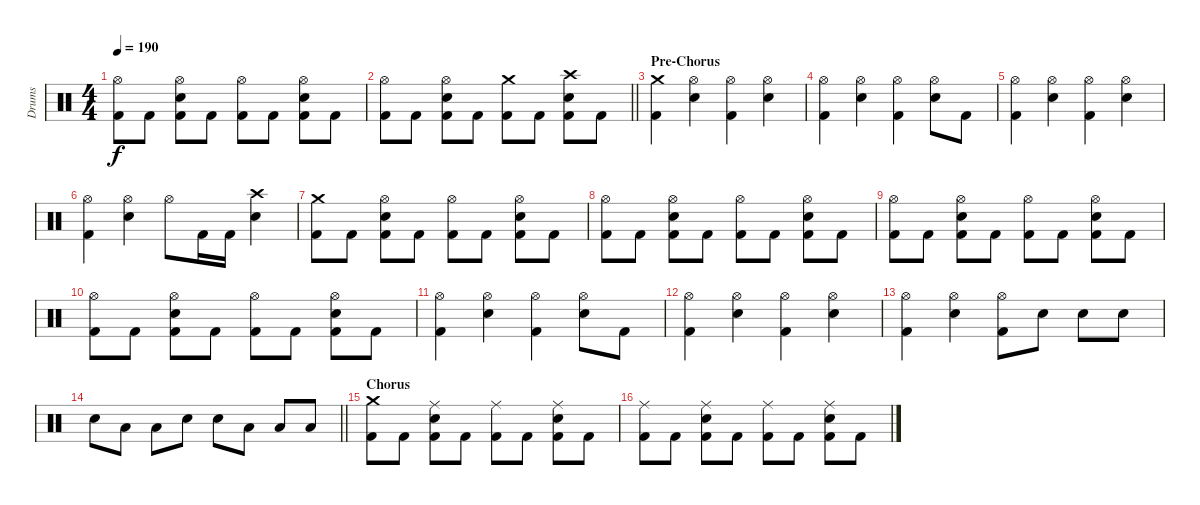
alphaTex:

\track ("Drums" "Drums") {instrument percussion}
\staff {score}
\articulation defaults
\ts (4 4)
\tempo 190
\clef neutral
\ks c
("Hi-Hat (open)" "Kick (hit) 2").8{dy f} "Kick (hit) 2".8 ("Hi-Hat (open)" "Snare (hit) 2" "Kick (hit) 2").8 "Kick (hit) 2".8 ("Hi-Hat (open)" "Kick (hit) 2").8 "Kick (hit) 2".8 ("Hi-Hat (open)" "Snare (hit) 2" "Kick (hit) 2").8 "Kick (hit) 2".8 |
\barLineRight lightlight
("Hi-Hat (open)" "Kick (hit) 2").8 "Kick (hit) 2".8 ("Hi-Hat (open)" "Snare (hit) 2" "Kick (hit) 2").8 "Kick (hit) 2".8 ("Crash medium (hit)" "Kick (hit) 2").8 "Kick (hit) 2".8 ("Crash high (hit)" "Snare (hit) 2" "Kick (hit) 2").8 "Kick (hit) 2".8 |
\section ("" "Pre-Chorus")
("Crash medium (hit)" "Kick (hit) 2").4 ("Hi-Hat (open)" "Snare (hit) 2").4 ("Hi-Hat (open)" "Kick (hit) 2").4 ("Hi-Hat (open)" "Snare (hit) 2").4 |
("Hi-Hat (open)" "Kick (hit) 2").4 ("Hi-Hat (open)" "Snare (hit) 2").4 ("Hi-Hat (open)" "Kick (hit) 2").4 ("Hi-Hat (open)" "Snare (hit) 2").8 "Kick (hit) 2".8 |
("Hi-Hat (open)" "Kick (hit) 2").4 ("Hi-Hat (open)" "Snare (hit) 2").4 ("Hi-Hat (open)" "Kick (hit) 2").4 ("Hi-Hat (open)" "Snare (hit) 2").4 |
("Hi-Hat (open)" "Kick (hit) 2").4 ("Hi-Hat (open)" "Snare (hit) 2").4 "Hi-Hat (open)".8 "Kick (hit) 2".16 "Kick (hit) 2".16 ("Crash high (hit)" "Snare (hit) 2").4 |
("Crash medium (hit)" "Kick (hit) 2").8 "Kick (hit) 2".8 ("Hi-Hat (open)" "Snare (hit) 2" "Kick (hit) 2").8 "Kick (hit) 2".8 ("Hi-Hat (open)" "Kick (hit) 2").8 "Kick (hit) 2".8 ("Hi-Hat (open)" "Snare (hit) 2" "Kick (hit) 2").8 "Kick (hit) 2".8 |
("Hi-Hat (open)" "Kick (hit) 2").8 "Kick (hit) 2".8 ("Hi-Hat (open)" "Snare (hit) 2" "Kick (hit) 2").8 "Kick (hit) 2".8 ("Hi-Hat (open)" "Kick (hit) 2").8 "Kick (hit) 2".8 ("Hi-Hat (open)" "Snare (hit) 2" "Kick (hit) 2").8 "Kick (hit) 2".8 |
("Hi-Hat (open)" "Kick (hit) 2").8 "Kick (hit) 2".8 ("Hi-Hat (open)" "Snare (hit) 2" "Kick (hit) 2").8 "Kick (hit) 2".8 ("Hi-Hat (open)" "Kick (hit) 2").8 "Kick (hit) 2".8 ("Hi-Hat (open)" "Snare (hit) 2" "Kick (hit) 2").8 "Kick (hit) 2".8 |
("Hi-Hat (open)" "Kick (hit) 2").8 "Kick (hit) 2".8 ("Hi-Hat (open)" "Snare (hit) 2" "Kick (hit) 2").8 "Kick (hit) 2".8 ("Hi-Hat (open)" "Kick (hit) 2").8 "Kick (hit) 2".8 ("Hi-Hat (open)" "Snare (hit) 2" "Kick (hit) 2").8 "Kick (hit) 2".8 |
("Hi-Hat (open)" "Kick (hit) 2").4 ("Hi-Hat (open)" "Snare (hit) 2").4 ("Hi-Hat (open)" "Kick (hit) 2").4 ("Hi-Hat (open)" "Snare (hit) 2").8 "Kick (hit) 2".8 |
("Hi-Hat (open)" "Kick (hit) 2").4 ("Hi-Hat (open)" "Snare (hit) 2").4 ("Hi-Hat (open)" "Kick (hit) 2").4 ("Hi-Hat (open)" "Snare (hit) 2").4 |
("Hi-Hat (open)" "Kick (hit) 2").4 ("Hi-Hat (open)" "Snare (hit) 2").4 ("Hi-Hat (open)" "Kick (hit) 2").8 "Snare (hit) 2".8 "Snare (hit) 2".8 "Snare (hit) 2".8 |
\barLineRight lightlight "Snare (hit) 2".8 "Low Tom (hit)".8 "Low Tom (hit)".8 "Snare (hit) 2".8 "Snare (hit) 2".8 "Low Tom (hit)".8 "Low Tom (hit)".8 "Low Tom (hit)".8
|
\section ("" "Chorus")
("Crash medium (hit)" "Kick (hit) 2").8 "Kick (hit) 2".8 ("Ride (middle)" "Snare (hit) 2" "Kick (hit) 2").8 "Kick (hit) 2".8 ("Ride (middle)" "Kick (hit) 2").8 "Kick (hit) 2".8 ("Ride (middle)" "Snare (hit) 2" "Kick (hit) 2").8 "Kick (hit) 2".8 |
("Ride (middle)" "Kick (hit) 2").8 "Kick (hit) 2".8 ("Ride (middle)" "Snare (hit) 2" "Kick (hit) 2").8 "Kick (hit) 2".8 ("Ride (middle)" "Kick (hit) 2").8 "Kick (hit) 2".8 ("Ride (middle)" "Snare (hit) 2" "Kick (hit) 2").8 "Kick (hit) 2".8
